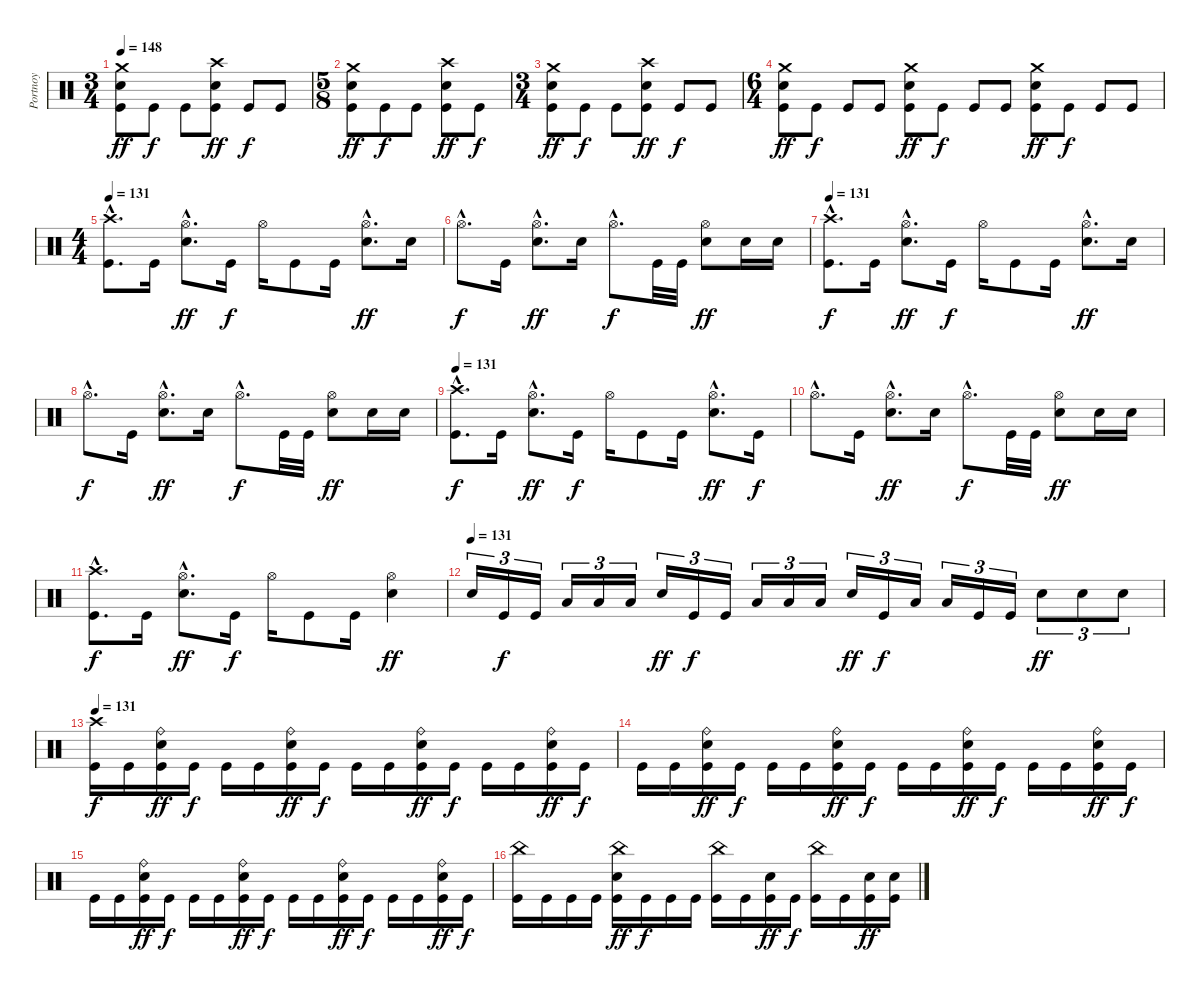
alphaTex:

\track ("Portnoy" "Portnoy") {instrument percussion}
\staff {score}
\articulation defaults
\ts (3 4)
\tempo 148
\clef neutral
\ks c
("Crash medium (hit)" "Electric Snare (hit)" "Kick (hit)").8{dy ff} "Kick (hit)".8{dy f} "Kick (hit)".8 ("Crash high (hit)" "Electric Snare (hit)" "Kick (hit)").8{dy ff} "Kick (hit)".8{dy f} "Kick (hit)".8 |
\ts (5 8)
("Crash medium (hit)" "Electric Snare (hit)" "Kick (hit)").8{dy ff} "Kick (hit)".8{dy f} "Kick (hit)".8 ("Crash high (hit)" "Electric Snare (hit)" "Kick (hit)").8{dy ff} "Kick (hit)".8{dy f} |
\ts (3 4)
("Crash medium (hit)" "Electric Snare (hit)" "Kick (hit)").8{dy ff} "Kick (hit)".8{dy f} "Kick (hit)".8 ("Crash high (hit)" "Electric Snare (hit)" "Kick (hit)").8{dy ff} "Kick (hit)".8{dy f} "Kick (hit)".8 |
\ts (6 4)
("Crash medium (hit)" "Electric Snare (hit)" "Kick (hit)").8{dy ff} "Kick (hit)".8{dy f} "Kick (hit)".8 "Kick (hit)".8 ("Crash medium (hit)" "Electric Snare (hit)" "Kick (hit)").8{dy ff} "Kick (hit)".8{dy f} "Kick (hit)".8 "Kick (hit)".8 ("Crash medium (hit)" "Electric Snare (hit)" "Kick (hit)").8{dy ff} "Kick (hit)".8{dy f} "Kick (hit)".8 "Kick (hit)".8 |
\ts (4 4)
\tempo 131
("Crash high (hit)"{hac} "Kick (hit)"{hac}).8{d} "Kick (hit)".16 ("Hi-Hat (open)"{hac} "Electric Snare (hit)"{hac}).8{d dy ff} "Kick (hit)".16{dy f} "Hi-Hat (open)".16 "Kick (hit)".8 "Kick (hit)".16 ("Hi-Hat (open)"{hac} "Electric Snare (hit)"{hac}).8{d dy ff} "Electric Snare (hit)".16 |
"Hi-Hat (open)"{hac}.8{d dy f} "Kick (hit)".16 ("Hi-Hat (open)"{hac} "Electric Snare (hit)"{hac}).8{d dy ff} "Electric Snare (hit)".16 "Hi-Hat (open)"{hac}.8{d dy f} "Kick (hit)".32 "Kick (hit)".32 ("Hi-Hat (open)" "Electric Snare (hit)").8{dy ff} "Electric Snare (hit)".16 "Electric Snare (hit)".16 |
\tempo 131
("Crash high (hit)"{hac} "Kick (hit)"{hac}).8{d dy f} "Kick (hit)".16 ("Hi-Hat (open)"{hac} "Electric Snare (hit)"{hac}).8{d dy ff} "Kick (hit)".16{dy f} "Hi-Hat (open)".16 "Kick (hit)".8 "Kick (hit)".16 ("Hi-Hat (open)"{hac} "Electric Snare (hit)"{hac}).8{d dy ff} "Electric Snare (hit)".16 |
"Hi-Hat (open)"{hac}.8{d dy f} "Kick (hit)".16 ("Hi-Hat (open)"{hac} "Electric Snare (hit)"{hac}).8{d dy ff} "Electric Snare (hit)".16 "Hi-Hat (open)"{hac}.8{d dy f} "Kick (hit)".32 "Kick (hit)".32 ("Hi-Hat (open)" "Electric Snare (hit)").8{dy ff} "Electric Snare (hit)".16 "Electric Snare (hit)".16 |
\tempo 131
("Crash high (hit)"{hac} "Kick (hit)"{hac}).8{d dy f} "Kick (hit)".16 ("Hi-Hat (open)"{hac} "Electric Snare (hit)"{hac}).8{d dy ff} "Kick (hit)".16{dy f} "Hi-Hat (open)".16 "Kick (hit)".8 "Kick (hit)".16 ("Hi-Hat (open)"{hac} "Electric Snare (hit)"{hac}).8{d dy ff} "Kick (hit)".16{dy f} |
"Hi-Hat (open)"{hac}.8{d} "Kick (hit)".16 ("Hi-Hat (open)"{hac} "Electric Snare (hit)"{hac}).8{d dy ff} "Electric Snare (hit)".16 "Hi-Hat (open)"{hac}.8{d dy f} "Kick (hit)".32 "Kick (hit)".32 ("Hi-Hat (open)" "Electric Snare (hit)").8{dy ff} "Electric Snare (hit)".16 "Electric Snare (hit)".16 |
("Crash high (hit)"{hac} "Kick (hit)"{hac}).8{d dy f} "Kick (hit)".16 ("Hi-Hat (open)"{hac} "Electric Snare (hit)"{hac}).8{d dy ff} "Kick (hit)".16{dy f} "Hi-Hat (open)".16 "Kick (hit)".8 "Kick (hit)".16 ("Hi-Hat (open)" "Electric Snare (hit)").4{dy ff} |
\tempo (131)
"Electric Snare (hit)".16{tu (3 2)} "Kick (hit)".16{tu (3 2) dy f} "Kick (hit)".16{tu (3 2)} "Low Tom (hit)".16{tu (3 2)} "Low Tom (hit)".16{tu (3 2)} "Low Tom (hit)".16{tu (3 2)} "Electric Snare (hit)".16{tu (3 2) dy ff} "Kick (hit)".16{tu (3 2) dy f} "Kick (hit)".16{tu (3 2)} "Low Tom (hit)".16{tu (3 2)} "Low Tom (hit)".16{tu (3 2)} "Low Tom (hit)".16{tu (3 2)} "Electric Snare (hit)".16{tu (3 2) dy ff} "Kick (hit)".16{tu (3 2) dy f} "Low Tom (hit)".16{tu (3 2)} "Low Tom (hit)".16{tu (3 2)} "Kick (hit)".16{tu (3 2)} "Kick (hit)".16{tu (3 2)} "Electric Snare (hit)".8{tu (3 2) dy ff} "Electric Snare (hit)".8{tu (3 2)} "Electric Snare (hit)".8{tu (3 2)} |
\tempo 131
("Crash high (hit)" "Kick (hit)").16{dy f} "Kick (hit)".16 ("Ride (bell)" "Electric Snare (hit)" "Kick (hit)").16{dy ff} "Kick (hit)".16{dy f} "Kick (hit)".16 "Kick (hit)".16 ("Ride (bell)" "Electric Snare (hit)" "Kick (hit)").16{dy ff} "Kick (hit)".16{dy f} "Kick (hit)".16 "Kick (hit)".16 ("Ride (bell)" "Electric Snare (hit)" "Kick (hit)").16{dy ff} "Kick (hit)".16{dy f} "Kick (hit)".16 "Kick (hit)".16 ("Ride (bell)" "Electric Snare (hit)" "Kick (hit)").16{dy ff} "Kick (hit)".16{dy f} |
"Kick (hit)".16 "Kick (hit)".16 ("Ride (bell)" "Electric Snare (hit)" "Kick (hit)").16{dy ff} "Kick (hit)".16{dy f} "Kick (hit)".16 "Kick (hit)".16 ("Ride (bell)" "Electric Snare (hit)" "Kick (hit)").16{dy ff} "Kick (hit)".16{dy f} "Kick (hit)".16 "Kick (hit)".16 ("Ride (bell)" "Electric Snare (hit)" "Kick (hit)").16{dy ff} "Kick (hit)".16{dy f} "Kick (hit)".16 "Kick (hit)".16 ("Ride (bell)" "Electric Snare (hit)" "Kick (hit)").16{dy ff} "Kick (hit)".16{dy f} |
"Kick (hit)".16 "Kick (hit)".16 ("Ride (bell)" "Electric Snare (hit)" "Kick (hit)").16{dy ff} "Kick (hit)".16{dy f} "Kick (hit)".16 "Kick (hit)".16 ("Ride (bell)" "Electric Snare (hit)" "Kick (hit)").16{dy ff} "Kick (hit)".16{dy f} "Kick (hit)".16 "Kick (hit)".16 ("Ride (bell)" "Electric Snare (hit)" "Kick (hit)").16{dy ff} "Kick (hit)".16{dy f} "Kick (hit)".16 "Kick (hit)".16 ("Ride (bell)" "Electric Snare (hit)" "Kick (hit)").16{dy ff} "Kick (hit)".16{dy f} |
("China (hit)" "Kick (hit)").16 "Kick (hit)".16 "Kick (hit)".16 "Kick (hit)".16 ("China (hit)" "Electric Snare (hit)" "Kick (hit)").16{dy ff} "Kick (hit)".16{dy f} "Kick (hit)".16 "Kick (hit)".16 ("China (hit)" "Kick (hit)").16 "Kick (hit)".16 ("Electric Snare (hit)" "Kick (hit)").16{dy ff} "Kick (hit)".16{dy f} ("China (hit)" "Kick (hit)").16 "Kick (hit)".16 ("Electric Snare (hit)" "Kick (hit)").16{dy ff} ("Electric Snare (hit)" "Kick (hit)").16
